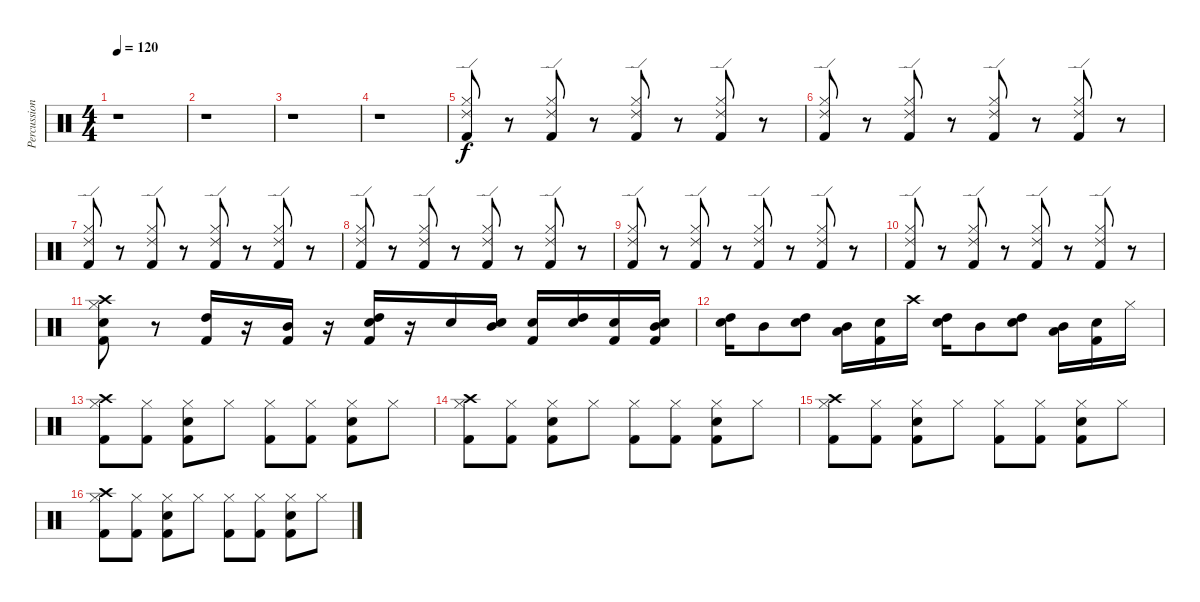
\track ("Percussion" "Percussion") {instrument percussion}
\staff {score}
\articulation defaults
\ts (4 4)
\tempo 120
\clef neutral
\ks c
r.1{dy f} |
r.1 |
r.1 |
r.1 |
("Kick (hit) 2" "Hi-Hat (closed)" "Ride (edge) 2").8 r.8 ("Kick (hit) 2" "Hi-Hat (closed)" "Ride (edge) 2").8 r.8 ("Kick (hit) 2" "Hi-Hat (closed)" "Ride (edge) 2").8 r.8 ("Kick (hit) 2" "Hi-Hat (closed)" "Ride (edge) 2").8 r.8 |
("Kick (hit) 2" "Hi-Hat (closed)" "Ride (edge) 2").8 r.8 ("Kick (hit) 2" "Hi-Hat (closed)" "Ride (edge) 2").8 r.8 ("Kick (hit) 2" "Hi-Hat (closed)" "Ride (edge) 2").8 r.8 ("Kick (hit) 2" "Hi-Hat (closed)" "Ride (edge) 2").8 r.8 |
("Kick (hit) 2" "Hi-Hat (closed)" "Ride (edge) 2").8 r.8 ("Kick (hit) 2" "Hi-Hat (closed)" "Ride (edge) 2").8 r.8 ("Kick (hit) 2" "Hi-Hat (closed)" "Ride (edge) 2").8 r.8 ("Kick (hit) 2" "Hi-Hat (closed)" "Ride (edge) 2").8 r.8 |
("Kick (hit) 2" "Hi-Hat (closed)" "Ride (edge) 2").8 r.8 ("Kick (hit) 2" "Hi-Hat (closed)" "Ride (edge) 2").8 r.8 ("Kick (hit) 2" "Hi-Hat (closed)" "Ride (edge) 2").8 r.8 ("Kick (hit) 2" "Hi-Hat (closed)" "Ride (edge) 2").8 r.8 |
("Kick (hit) 2" "Hi-Hat (closed)" "Ride (edge) 2").8 r.8 ("Kick (hit) 2" "Hi-Hat (closed)" "Ride (edge) 2").8 r.8 ("Kick (hit) 2" "Hi-Hat (closed)" "Ride (edge) 2").8 r.8 ("Kick (hit) 2" "Hi-Hat (closed)" "Ride (edge) 2").8 r.8 |
("Kick (hit) 2" "Hi-Hat (closed)" "Ride (edge) 2").8 r.8 ("Kick (hit) 2" "Hi-Hat (closed)" "Ride (edge) 2").8 r.8 ("Kick (hit) 2" "Hi-Hat (closed)" "Ride (edge) 2").8 r.8 ("Kick (hit) 2" "Hi-Hat (closed)" "Ride (edge) 2").8 r.8 |
("Kick (hit) 2" "Snare (hit) 2" "Hi-Hat (closed)" "Crash high (hit)").8 r.8 ("Kick (hit) 2" "High Tom (hit)").16 r.16 ("Kick (hit) 2" "Mid Tom (hit)").16 r.16 ("Kick (hit) 2" "Snare (hit) 2" "High Tom (hit)").16 r.16 "Snare (hit) 2".16 ("Snare (hit) 2" "Mid Tom (hit)").16 ("Kick (hit) 2" "Snare (hit) 2").16 ("Snare (hit) 2" "High Tom (hit)").16 ("Kick (hit) 2" "Snare (hit) 2").16 ("Kick (hit) 2" "Snare (hit) 2" "Mid Tom (hit)").16 |
("High Tom (hit)" "Snare (hit) 2").16 "Mid Tom (hit)".8 ("High Tom (hit)" "Snare (hit) 2").8 ("Mid Tom (hit)" "Low Floor Tom (hit)").16 ("Kick (hit) 2" "Snare (hit) 2").16 "Crash high (hit)".16 ("High Tom (hit)" "Snare (hit) 2").16 "Mid Tom (hit)".8 ("High Tom (hit)" "Snare (hit) 2").8 ("Mid Tom (hit)" "Low Floor Tom (hit)").16 ("Kick (hit) 2" "Snare (hit) 2").16 "Hi-Hat (closed)".16 |
("Kick (hit) 2" "Hi-Hat (closed)" "Crash high (hit)").8 ("Kick (hit) 2" "Hi-Hat (closed)").8 ("Kick (hit) 2" "Snare (hit) 2" "Hi-Hat (closed)").8 "Hi-Hat (closed)".8 ("Kick (hit) 2" "Hi-Hat (closed)").8 ("Kick (hit) 2" "Hi-Hat (closed)").8 ("Kick (hit) 2" "Snare (hit) 2" "Hi-Hat (closed)").8 "Hi-Hat (closed)".8 |
("Kick (hit) 2" "Hi-Hat (closed)" "Crash high (hit)").8 ("Kick (hit) 2" "Hi-Hat (closed)").8 ("Kick (hit) 2" "Snare (hit) 2" "Hi-Hat (closed)").8 "Hi-Hat (closed)".8 ("Kick (hit) 2" "Hi-Hat (closed)").8 ("Kick (hit) 2" "Hi-Hat (closed)").8 ("Kick (hit) 2" "Snare (hit) 2" "Hi-Hat (closed)").8 "Hi-Hat (closed)".8 |
("Kick (hit) 2" "Hi-Hat (closed)" "Crash high (hit)").8 ("Kick (hit) 2" "Hi-Hat (closed)").8 ("Kick (hit) 2" "Snare (hit) 2" "Hi-Hat (closed)").8 "Hi-Hat (closed)".8 ("Kick (hit) 2" "Hi-Hat (closed)").8 ("Kick (hit) 2" "Hi-Hat (closed)").8 ("Kick (hit) 2" "Snare (hit) 2" "Hi-Hat (closed)").8 "Hi-Hat (closed)".8 |
("Kick (hit) 2" "Hi-Hat (closed)" "Crash high (hit)").8 ("Kick (hit) 2" "Hi-Hat (closed)").8 ("Kick (hit) 2" "Snare (hit) 2" "Hi-Hat (closed)").8 "Hi-Hat (closed)".8 ("Kick (hit) 2" "Hi-Hat (closed)").8 ("Kick (hit) 2" "Hi-Hat (closed)").8 ("Kick (hit) 2" "Snare (hit) 2" "Hi-Hat (closed)").8 "Hi-Hat (closed)".8
